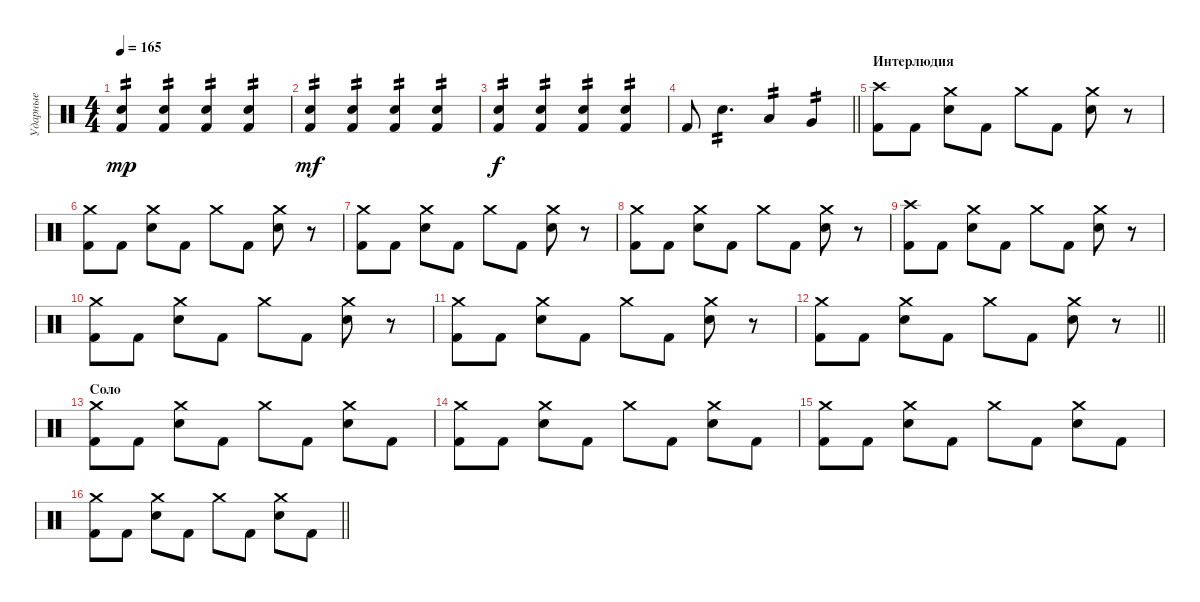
\track ("Ударные" "Ударные") {instrument percussion}
\staff {score}
\articulation defaults
\ts (4 4)
\tempo 165
\clef neutral
\ks c
("Electric Snare (hit)" "Kick (hit) 2").4{tp 2 dy mp} ("Electric Snare (hit)" "Kick (hit) 2").4{tp 2} ("Electric Snare (hit)" "Kick (hit) 2").4{tp 2} ("Electric Snare (hit)" "Kick (hit) 2").4{tp 2} |
("Electric Snare (hit)" "Kick (hit) 2").4{tp 2 dy mf} ("Electric Snare (hit)" "Kick (hit) 2").4{tp 2} ("Electric Snare (hit)" "Kick (hit) 2").4{tp 2} ("Electric Snare (hit)" "Kick (hit) 2").4{tp 2} |
("Electric Snare (hit)" "Kick (hit) 2").4{tp 2 dy f} ("Electric Snare (hit)" "Kick (hit) 2").4{tp 2} ("Electric Snare (hit)" "Kick (hit) 2").4{tp 2} ("Electric Snare (hit)" "Kick (hit) 2").4{tp 2} |
\barLineRight lightlight "Kick (hit) 2".8 "Electric Snare (hit)".4{d tp 2} "Low Tom (hit)".4{tp 2} "Very Low Tom (hit)".4{tp 2}
|
\section ("" "Интерлюдия")
("Crash high (hit)" "Kick (hit) 2").8 "Kick (hit) 2".8 ("Crash medium (hit)" "Electric Snare (hit)").8 "Kick (hit) 2".8 "Crash medium (hit)".8 "Kick (hit) 2".8 ("Crash medium (hit)" "Electric Snare (hit)").8 r.8 |
("Crash medium (hit)" "Kick (hit) 2").8 "Kick (hit) 2".8 ("Crash medium (hit)" "Electric Snare (hit)").8 "Kick (hit) 2".8 "Crash medium (hit)".8 "Kick (hit) 2".8 ("Crash medium (hit)" "Electric Snare (hit)").8 r.8 |
("Crash medium (hit)" "Kick (hit) 2").8 "Kick (hit) 2".8 ("Crash medium (hit)" "Electric Snare (hit)").8 "Kick (hit) 2".8 "Crash medium (hit)".8 "Kick (hit) 2".8 ("Crash medium (hit)" "Electric Snare (hit)").8 r.8 |
("Crash medium (hit)" "Kick (hit) 2").8 "Kick (hit) 2".8 ("Crash medium (hit)" "Electric Snare (hit)").8 "Kick (hit) 2".8 "Crash medium (hit)".8 "Kick (hit) 2".8 ("Crash medium (hit)" "Electric Snare (hit)").8 r.8 |
("Crash high (hit)" "Kick (hit) 2").8 "Kick (hit) 2".8 ("Crash medium (hit)" "Electric Snare (hit)").8 "Kick (hit) 2".8 "Crash medium (hit)".8 "Kick (hit) 2".8 ("Crash medium (hit)" "Electric Snare (hit)").8 r.8 |
("Crash medium (hit)" "Kick (hit) 2").8 "Kick (hit) 2".8 ("Crash medium (hit)" "Electric Snare (hit)").8 "Kick (hit) 2".8 "Crash medium (hit)".8 "Kick (hit) 2".8 ("Crash medium (hit)" "Electric Snare (hit)").8 r.8 |
("Crash medium (hit)" "Kick (hit) 2").8 "Kick (hit) 2".8 ("Crash medium (hit)" "Electric Snare (hit)").8 "Kick (hit) 2".8 "Crash medium (hit)".8 "Kick (hit) 2".8 ("Crash medium (hit)" "Electric Snare (hit)").8 r.8 |
\barLineRight lightlight
("Crash medium (hit)" "Kick (hit) 2").8 "Kick (hit) 2".8 ("Crash medium (hit)" "Electric Snare (hit)").8 "Kick (hit) 2".8 "Crash medium (hit)".8 "Kick (hit) 2".8 ("Crash medium (hit)" "Electric Snare (hit)").8 r.8 |
\section ("" "Соло")
("Crash medium (hit)" "Kick (hit) 2").8 "Kick (hit) 2".8 ("Crash medium (hit)" "Electric Snare (hit)").8 "Kick (hit) 2".8 "Crash medium (hit)".8 "Kick (hit) 2".8 ("Crash medium (hit)" "Electric Snare (hit)").8 "Kick (hit) 2".8 |
("Crash medium (hit)" "Kick (hit) 2").8 "Kick (hit) 2".8 ("Crash medium (hit)" "Electric Snare (hit)").8 "Kick (hit) 2".8 "Crash medium (hit)".8 "Kick (hit) 2".8 ("Crash medium (hit)" "Electric Snare (hit)").8 "Kick (hit) 2".8 |
("Crash medium (hit)" "Kick (hit) 2").8 "Kick (hit) 2".8 ("Crash medium (hit)" "Electric Snare (hit)").8 "Kick (hit) 2".8 "Crash medium (hit)".8 "Kick (hit) 2".8 ("Crash medium (hit)" "Electric Snare (hit)").8 "Kick (hit) 2".8 |
\barLineRight lightlight
("Crash medium (hit)" "Kick (hit) 2").8 "Kick (hit) 2".8 ("Crash medium (hit)" "Electric Snare (hit)").8 "Kick (hit) 2".8 "Crash medium (hit)".8 "Kick (hit) 2".8 ("Crash medium (hit)" "Electric Snare (hit)").8 "Kick (hit) 2".8
